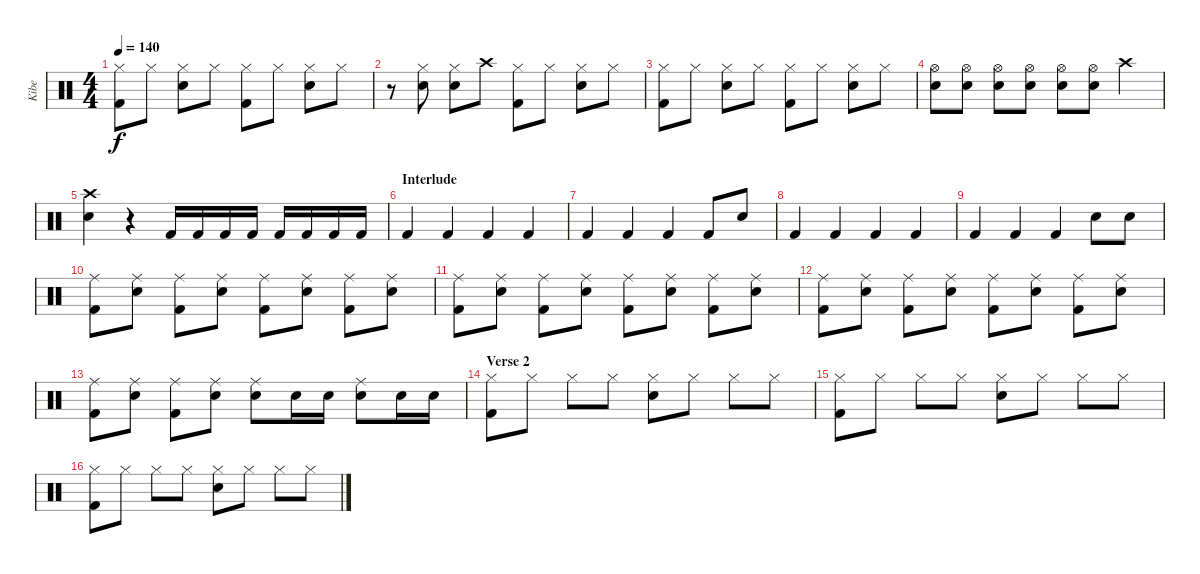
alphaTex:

\track ("Kibe" "Kibe") {instrument percussion}
\staff {score}
\articulation defaults
\ts (4 4)
\tempo 140
\clef neutral
\ks c
("Hi-Hat (closed)" "Kick (hit) 2").8{dy f} "Hi-Hat (closed)".8 ("Hi-Hat (closed)" "Snare (hit) 2").8 "Hi-Hat (closed)".8 ("Hi-Hat (closed)" "Kick (hit) 2").8 "Hi-Hat (closed)".8 ("Hi-Hat (closed)" "Snare (hit) 2").8 "Hi-Hat (closed)".8 |
r.8 ("Hi-Hat (closed)" "Snare (hit) 2").8 ("Hi-Hat (closed)" "Snare (hit) 2").8 "Crash high (hit)".8 ("Hi-Hat (closed)" "Kick (hit) 2").8 "Hi-Hat (closed)".8 ("Hi-Hat (closed)" "Snare (hit) 2").8 "Hi-Hat (closed)".8 |
("Hi-Hat (closed)" "Kick (hit) 2").8 "Hi-Hat (closed)".8 ("Hi-Hat (closed)" "Snare (hit) 2").8 "Hi-Hat (closed)".8 ("Hi-Hat (closed)" "Kick (hit) 2").8 "Hi-Hat (closed)".8 ("Hi-Hat (closed)" "Snare (hit) 2").8 "Hi-Hat (closed)".8 |
("Snare (hit) 2" "Hi-Hat (open)").8 ("Snare (hit) 2" "Hi-Hat (open)").8 ("Snare (hit) 2" "Hi-Hat (open)").8 ("Snare (hit) 2" "Hi-Hat (open)").8 ("Snare (hit) 2" "Hi-Hat (open)").8 ("Snare (hit) 2" "Hi-Hat (open)").8 "Crash high (hit)".4 |
("Crash high (hit)" "Snare (hit) 2").4 r.4 "Kick (hit) 2".16 "Kick (hit) 2".16 "Kick (hit) 2".16 "Kick (hit) 2".16 "Kick (hit) 2".16 "Kick (hit) 2".16 "Kick (hit) 2".16 "Kick (hit) 2".16 |
\section ("" "Interlude")
"Kick (hit) 2".4 "Kick (hit) 2".4 "Kick (hit) 2".4 "Kick (hit) 2".4 |
"Kick (hit) 2".4 "Kick (hit) 2".4 "Kick (hit) 2".4 "Kick (hit) 2".8 "Snare (hit) 2".8 |
"Kick (hit) 2".4 "Kick (hit) 2".4 "Kick (hit) 2".4 "Kick (hit) 2".4 |
"Kick (hit) 2".4 "Kick (hit) 2".4 "Kick (hit) 2".4 "Snare (hit) 2".8 "Snare (hit) 2".8 |
("Ride (middle)" "Kick (hit) 2").8 ("Ride (middle)" "Snare (hit) 2").8 ("Ride (middle)" "Kick (hit) 2").8 ("Ride (middle)" "Snare (hit) 2").8 ("Ride (middle)" "Kick (hit) 2").8 ("Ride (middle)" "Snare (hit) 2").8 ("Ride (middle)" "Kick (hit) 2").8 ("Ride (middle)" "Snare (hit) 2").8 |
("Ride (middle)" "Kick (hit) 2").8 ("Ride (middle)" "Snare (hit) 2").8 ("Ride (middle)" "Kick (hit) 2").8 ("Ride (middle)" "Snare (hit) 2").8 ("Ride (middle)" "Kick (hit) 2").8 ("Ride (middle)" "Snare (hit) 2").8 ("Ride (middle)" "Kick (hit) 2").8 ("Ride (middle)" "Snare (hit) 2").8 |
("Ride (middle)" "Kick (hit) 2").8 ("Ride (middle)" "Snare (hit) 2").8 ("Ride (middle)" "Kick (hit) 2").8 ("Ride (middle)" "Snare (hit) 2").8 ("Ride (middle)" "Kick (hit) 2").8 ("Ride (middle)" "Snare (hit) 2").8 ("Ride (middle)" "Kick (hit) 2").8 ("Ride (middle)" "Snare (hit) 2").8 |
("Ride (middle)" "Kick (hit) 2").8 ("Ride (middle)" "Snare (hit) 2").8 ("Ride (middle)" "Kick (hit) 2").8 ("Ride (middle)" "Snare (hit) 2").8 ("Ride (middle)" "Snare (hit) 2").8 "Snare (hit) 2".16 "Snare (hit) 2".16 ("Ride (middle)" "Snare (hit) 2").8 "Snare (hit) 2".16 "Snare (hit) 2".16 |
\section ("" "Verse 2")
("Hi-Hat (closed)" "Kick (hit) 2").8 "Hi-Hat (closed)".8 "Hi-Hat (closed)".8 "Hi-Hat (closed)".8 ("Hi-Hat (closed)" "Snare (hit) 2").8 "Hi-Hat (closed)".8 "Hi-Hat (closed)".8 "Hi-Hat (closed)".8 |
("Hi-Hat (closed)" "Kick (hit) 2").8 "Hi-Hat (closed)".8 "Hi-Hat (closed)".8 "Hi-Hat (closed)".8 ("Hi-Hat (closed)" "Snare (hit) 2").8 "Hi-Hat (closed)".8 "Hi-Hat (closed)".8 "Hi-Hat (closed)".8 |
("Hi-Hat (closed)" "Kick (hit) 2").8 "Hi-Hat (closed)".8 "Hi-Hat (closed)".8 "Hi-Hat (closed)".8 ("Hi-Hat (closed)" "Snare (hit) 2").8 "Hi-Hat (closed)".8 "Hi-Hat (closed)".8 "Hi-Hat (closed)".8
